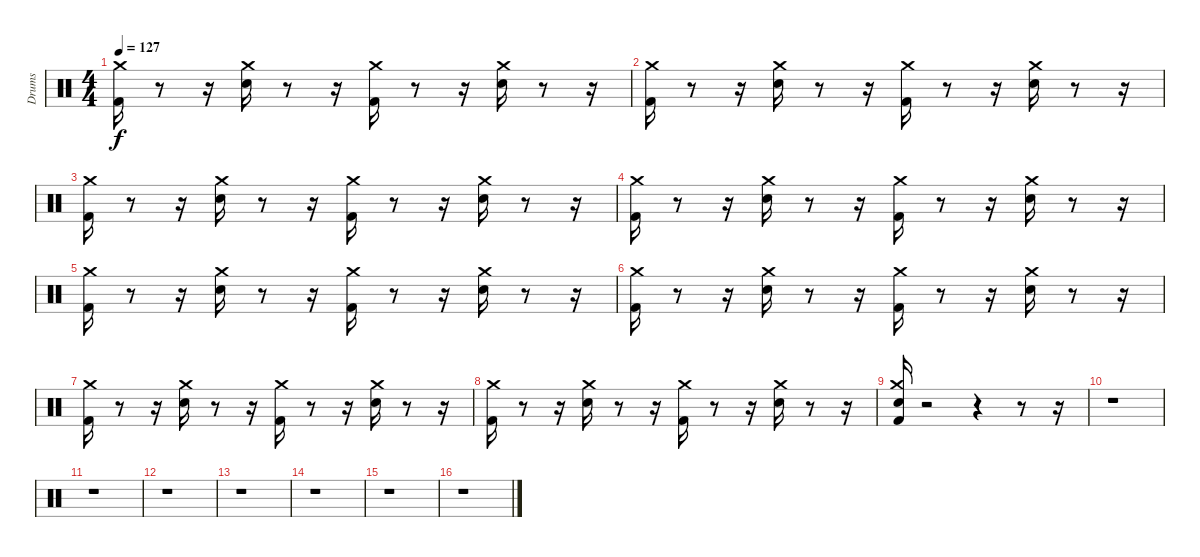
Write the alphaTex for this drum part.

\track ("Drums               " "Drums     ") {instrument percussion}
\staff {score}
\articulation defaults
\ts (4 4)
\tempo 127
\clef neutral
\ks c
("Kick (hit) 2" "Crash medium (hit)").16{dy f} r.8 r.16 ("Electric Snare (hit)" "Crash medium (hit)").16 r.8 r.16 ("Kick (hit) 2" "Crash medium (hit)").16 r.8 r.16 ("Electric Snare (hit)" "Crash medium (hit)").16 r.8 r.16 |
("Kick (hit) 2" "Crash medium (hit)").16 r.8 r.16 ("Electric Snare (hit)" "Crash medium (hit)").16 r.8 r.16 ("Kick (hit) 2" "Crash medium (hit)").16 r.8 r.16 ("Electric Snare (hit)" "Crash medium (hit)").16 r.8 r.16 |
("Kick (hit) 2" "Crash medium (hit)").16 r.8 r.16 ("Electric Snare (hit)" "Crash medium (hit)").16 r.8 r.16 ("Kick (hit) 2" "Crash medium (hit)").16 r.8 r.16 ("Electric Snare (hit)" "Crash medium (hit)").16 r.8 r.16 |
("Kick (hit) 2" "Crash medium (hit)").16 r.8 r.16 ("Electric Snare (hit)" "Crash medium (hit)").16 r.8 r.16 ("Kick (hit) 2" "Crash medium (hit)").16 r.8 r.16 ("Electric Snare (hit)" "Crash medium (hit)").16 r.8 r.16 |
("Kick (hit) 2" "Crash medium (hit)").16 r.8 r.16 ("Electric Snare (hit)" "Crash medium (hit)").16 r.8 r.16 ("Kick (hit) 2" "Crash medium (hit)").16 r.8 r.16 ("Electric Snare (hit)" "Crash medium (hit)").16 r.8 r.16 |
("Kick (hit) 2" "Crash medium (hit)").16 r.8 r.16 ("Electric Snare (hit)" "Crash medium (hit)").16 r.8 r.16 ("Kick (hit) 2" "Crash medium (hit)").16 r.8 r.16 ("Electric Snare (hit)" "Crash medium (hit)").16 r.8 r.16 |
("Kick (hit) 2" "Crash medium (hit)").16 r.8 r.16 ("Electric Snare (hit)" "Crash medium (hit)").16 r.8 r.16 ("Kick (hit) 2" "Crash medium (hit)").16 r.8 r.16 ("Electric Snare (hit)" "Crash medium (hit)").16 r.8 r.16 |
("Kick (hit) 2" "Crash medium (hit)").16 r.8 r.16 ("Electric Snare (hit)" "Crash medium (hit)").16 r.8 r.16 ("Kick (hit) 2" "Crash medium (hit)").16 r.8 r.16 ("Electric Snare (hit)" "Crash medium (hit)").16 r.8 r.16 |
("Kick (hit) 2" "Electric Snare (hit)" "Crash medium (hit)").16 r.2 r.4 r.8 r.16 |
r.1 |
r.1 |
r.1 |
r.1 |
r.1 |
r.1 |
r.1
